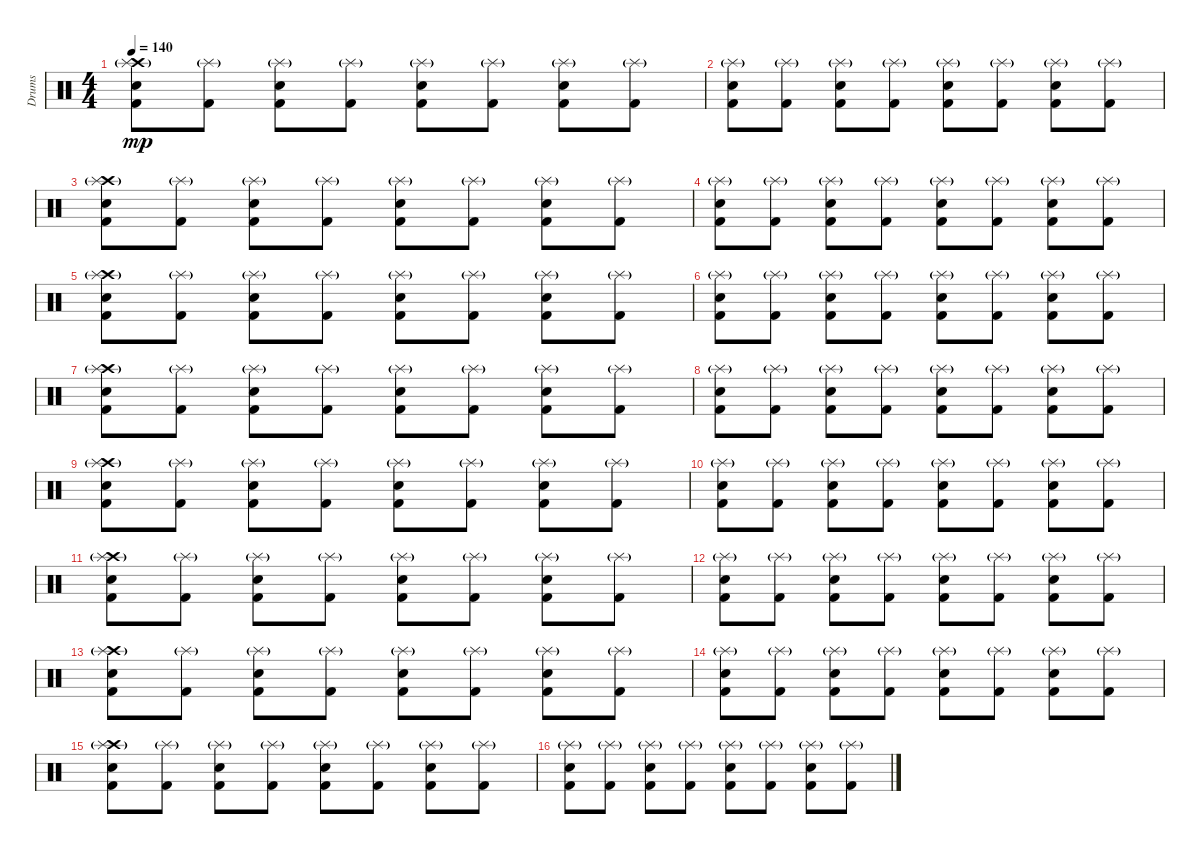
\track ("Drums" "Drums") {instrument percussion}
\staff {score}
\articulation defaults
\ts (4 4)
\tempo 140
\clef neutral
\ks c
("Crash high (hit)" "Splash (hit)"{g} "Electric Snare (hit)" "Kick (hit) 2").8{dy mp} ("Splash (hit)"{g} "Kick (hit) 2").8 ("Splash (hit)"{g} "Electric Snare (hit)" "Kick (hit) 2").8 ("Splash (hit)"{g} "Kick (hit) 2").8 ("Splash (hit)"{g} "Electric Snare (hit)" "Kick (hit) 2").8 ("Splash (hit)"{g} "Kick (hit) 2").8 ("Splash (hit)"{g} "Electric Snare (hit)" "Kick (hit) 2").8 ("Splash (hit)"{g} "Kick (hit) 2").8 |
("Splash (hit)"{g} "Electric Snare (hit)" "Kick (hit) 2").8 ("Splash (hit)"{g} "Kick (hit) 2").8 ("Splash (hit)"{g} "Electric Snare (hit)" "Kick (hit) 2").8 ("Splash (hit)"{g} "Kick (hit) 2").8 ("Splash (hit)"{g} "Electric Snare (hit)" "Kick (hit) 2").8 ("Splash (hit)"{g} "Kick (hit) 2").8 ("Splash (hit)"{g} "Electric Snare (hit)" "Kick (hit) 2").8 ("Splash (hit)"{g} "Kick (hit) 2").8 |
("Crash high (hit)" "Splash (hit)"{g} "Electric Snare (hit)" "Kick (hit) 2").8 ("Splash (hit)"{g} "Kick (hit) 2").8 ("Splash (hit)"{g} "Electric Snare (hit)" "Kick (hit) 2").8 ("Splash (hit)"{g} "Kick (hit) 2").8 ("Splash (hit)"{g} "Electric Snare (hit)" "Kick (hit) 2").8 ("Splash (hit)"{g} "Kick (hit) 2").8 ("Splash (hit)"{g} "Electric Snare (hit)" "Kick (hit) 2").8 ("Splash (hit)"{g} "Kick (hit) 2").8 |
("Splash (hit)"{g} "Electric Snare (hit)" "Kick (hit) 2").8 ("Splash (hit)"{g} "Kick (hit) 2").8 ("Splash (hit)"{g} "Electric Snare (hit)" "Kick (hit) 2").8 ("Splash (hit)"{g} "Kick (hit) 2").8 ("Splash (hit)"{g} "Electric Snare (hit)" "Kick (hit) 2").8 ("Splash (hit)"{g} "Kick (hit) 2").8 ("Splash (hit)"{g} "Electric Snare (hit)" "Kick (hit) 2").8 ("Splash (hit)"{g} "Kick (hit) 2").8 |
("Crash high (hit)" "Splash (hit)"{g} "Electric Snare (hit)" "Kick (hit) 2").8 ("Splash (hit)"{g} "Kick (hit) 2").8 ("Splash (hit)"{g} "Electric Snare (hit)" "Kick (hit) 2").8 ("Splash (hit)"{g} "Kick (hit) 2").8 ("Splash (hit)"{g} "Electric Snare (hit)" "Kick (hit) 2").8 ("Splash (hit)"{g} "Kick (hit) 2").8 ("Splash (hit)"{g} "Electric Snare (hit)" "Kick (hit) 2").8 ("Splash (hit)"{g} "Kick (hit) 2").8 |
("Splash (hit)"{g} "Electric Snare (hit)" "Kick (hit) 2").8 ("Splash (hit)"{g} "Kick (hit) 2").8 ("Splash (hit)"{g} "Electric Snare (hit)" "Kick (hit) 2").8 ("Splash (hit)"{g} "Kick (hit) 2").8 ("Splash (hit)"{g} "Electric Snare (hit)" "Kick (hit) 2").8 ("Splash (hit)"{g} "Kick (hit) 2").8 ("Splash (hit)"{g} "Electric Snare (hit)" "Kick (hit) 2").8 ("Splash (hit)"{g} "Kick (hit) 2").8 |
("Crash high (hit)" "Splash (hit)"{g} "Electric Snare (hit)" "Kick (hit) 2").8 ("Splash (hit)"{g} "Kick (hit) 2").8 ("Splash (hit)"{g} "Electric Snare (hit)" "Kick (hit) 2").8 ("Splash (hit)"{g} "Kick (hit) 2").8 ("Splash (hit)"{g} "Electric Snare (hit)" "Kick (hit) 2").8 ("Splash (hit)"{g} "Kick (hit) 2").8 ("Splash (hit)"{g} "Electric Snare (hit)" "Kick (hit) 2").8 ("Splash (hit)"{g} "Kick (hit) 2").8 |
("Splash (hit)"{g} "Electric Snare (hit)" "Kick (hit) 2").8 ("Splash (hit)"{g} "Kick (hit) 2").8 ("Splash (hit)"{g} "Electric Snare (hit)" "Kick (hit) 2").8 ("Splash (hit)"{g} "Kick (hit) 2").8 ("Splash (hit)"{g} "Electric Snare (hit)" "Kick (hit) 2").8 ("Splash (hit)"{g} "Kick (hit) 2").8 ("Splash (hit)"{g} "Electric Snare (hit)" "Kick (hit) 2").8 ("Splash (hit)"{g} "Kick (hit) 2").8 |
("Crash high (hit)" "Splash (hit)"{g} "Electric Snare (hit)" "Kick (hit) 2").8 ("Splash (hit)"{g} "Kick (hit) 2").8 ("Splash (hit)"{g} "Electric Snare (hit)" "Kick (hit) 2").8 ("Splash (hit)"{g} "Kick (hit) 2").8 ("Splash (hit)"{g} "Electric Snare (hit)" "Kick (hit) 2").8 ("Splash (hit)"{g} "Kick (hit) 2").8 ("Splash (hit)"{g} "Electric Snare (hit)" "Kick (hit) 2").8 ("Splash (hit)"{g} "Kick (hit) 2").8 |
("Splash (hit)"{g} "Electric Snare (hit)" "Kick (hit) 2").8 ("Splash (hit)"{g} "Kick (hit) 2").8 ("Splash (hit)"{g} "Electric Snare (hit)" "Kick (hit) 2").8 ("Splash (hit)"{g} "Kick (hit) 2").8 ("Splash (hit)"{g} "Electric Snare (hit)" "Kick (hit) 2").8 ("Splash (hit)"{g} "Kick (hit) 2").8 ("Splash (hit)"{g} "Electric Snare (hit)" "Kick (hit) 2").8 ("Splash (hit)"{g} "Kick (hit) 2").8 |
("Crash high (hit)" "Splash (hit)"{g} "Electric Snare (hit)" "Kick (hit) 2").8 ("Splash (hit)"{g} "Kick (hit) 2").8 ("Splash (hit)"{g} "Electric Snare (hit)" "Kick (hit) 2").8 ("Splash (hit)"{g} "Kick (hit) 2").8 ("Splash (hit)"{g} "Electric Snare (hit)" "Kick (hit) 2").8 ("Splash (hit)"{g} "Kick (hit) 2").8 ("Splash (hit)"{g} "Electric Snare (hit)" "Kick (hit) 2").8 ("Splash (hit)"{g} "Kick (hit) 2").8 |
("Splash (hit)"{g} "Electric Snare (hit)" "Kick (hit) 2").8 ("Splash (hit)"{g} "Kick (hit) 2").8 ("Splash (hit)"{g} "Electric Snare (hit)" "Kick (hit) 2").8 ("Splash (hit)"{g} "Kick (hit) 2").8 ("Splash (hit)"{g} "Electric Snare (hit)" "Kick (hit) 2").8 ("Splash (hit)"{g} "Kick (hit) 2").8 ("Splash (hit)"{g} "Electric Snare (hit)" "Kick (hit) 2").8 ("Splash (hit)"{g} "Kick (hit) 2").8 |
("Crash high (hit)" "Splash (hit)"{g} "Electric Snare (hit)" "Kick (hit) 2").8 ("Splash (hit)"{g} "Kick (hit) 2").8 ("Splash (hit)"{g} "Electric Snare (hit)" "Kick (hit) 2").8 ("Splash (hit)"{g} "Kick (hit) 2").8 ("Splash (hit)"{g} "Electric Snare (hit)" "Kick (hit) 2").8 ("Splash (hit)"{g} "Kick (hit) 2").8 ("Splash (hit)"{g} "Electric Snare (hit)" "Kick (hit) 2").8 ("Splash (hit)"{g} "Kick (hit) 2").8 |
("Splash (hit)"{g} "Electric Snare (hit)" "Kick (hit) 2").8 ("Splash (hit)"{g} "Kick (hit) 2").8 ("Splash (hit)"{g} "Electric Snare (hit)" "Kick (hit) 2").8 ("Splash (hit)"{g} "Kick (hit) 2").8 ("Splash (hit)"{g} "Electric Snare (hit)" "Kick (hit) 2").8 ("Splash (hit)"{g} "Kick (hit) 2").8 ("Splash (hit)"{g} "Electric Snare (hit)" "Kick (hit) 2").8 ("Splash (hit)"{g} "Kick (hit) 2").8 |
("Crash high (hit)" "Splash (hit)"{g} "Electric Snare (hit)" "Kick (hit) 2").8 ("Splash (hit)"{g} "Kick (hit) 2").8 ("Splash (hit)"{g} "Electric Snare (hit)" "Kick (hit) 2").8 ("Splash (hit)"{g} "Kick (hit) 2").8 ("Splash (hit)"{g} "Electric Snare (hit)" "Kick (hit) 2").8 ("Splash (hit)"{g} "Kick (hit) 2").8 ("Splash (hit)"{g} "Electric Snare (hit)" "Kick (hit) 2").8 ("Splash (hit)"{g} "Kick (hit) 2").8 |
("Splash (hit)"{g} "Electric Snare (hit)" "Kick (hit) 2").8 ("Splash (hit)"{g} "Kick (hit) 2").8 ("Splash (hit)"{g} "Electric Snare (hit)" "Kick (hit) 2").8 ("Splash (hit)"{g} "Kick (hit) 2").8 ("Splash (hit)"{g} "Electric Snare (hit)" "Kick (hit) 2").8 ("Splash (hit)"{g} "Kick (hit) 2").8 ("Splash (hit)"{g} "Electric Snare (hit)" "Kick (hit) 2").8 ("Splash (hit)"{g} "Kick (hit) 2").8
